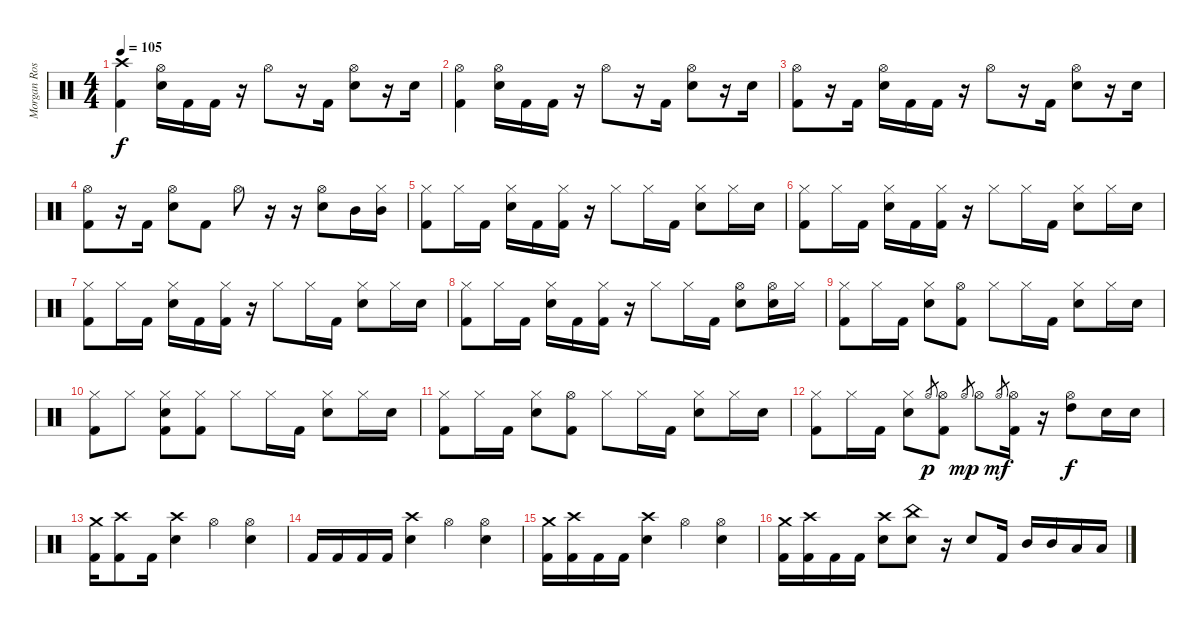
\track ("Morgan Rose - Drums" "Morgan Ros") {instrument percussion}
\staff {score}
\articulation defaults
\ts (4 4)
\tempo 105
\clef neutral
\ks c
("Crash high (hit)" "Kick (hit) 2").4{dy f} ("Hi-Hat (open)" "Electric Snare (hit)").16 "Kick (hit) 2".16 "Kick (hit) 2".16 r.16 "Hi-Hat (open)".8 r.16 "Kick (hit) 2".16 ("Hi-Hat (open)" "Electric Snare (hit)").8 r.16 "Electric Snare (hit)".16 |
("Hi-Hat (open)" "Kick (hit) 2").4 ("Hi-Hat (open)" "Electric Snare (hit)").16 "Kick (hit) 2".16 "Kick (hit) 2".16 r.16 "Hi-Hat (open)".8 r.16 "Kick (hit) 2".16 ("Hi-Hat (open)" "Electric Snare (hit)").8 r.16 "Electric Snare (hit)".16 |
("Hi-Hat (open)" "Kick (hit) 2").8 r.16 "Kick (hit) 2".16 ("Hi-Hat (open)" "Electric Snare (hit)").16 "Kick (hit) 2".16 "Kick (hit) 2".16 r.16 "Hi-Hat (open)".8 r.16 "Kick (hit) 2".16 ("Hi-Hat (open)" "Electric Snare (hit)").8 r.16 "Electric Snare (hit)".16 |
("Hi-Hat (open)" "Kick (hit) 2").8 r.16 "Kick (hit) 2".16 ("Hi-Hat (open)" "Electric Snare (hit)").8 "Kick (hit) 2".8 "Hi-Hat (open)".8 r.16 r.16 ("Hi-Hat (open)" "Electric Snare (hit)").8 "Mid Tom (hit)".16 ("Hi-Hat (closed)" "Mid Tom (hit)").16 |
("Hi-Hat (closed)" "Kick (hit) 2").8 "Hi-Hat (closed)".16 "Kick (hit) 2".16 ("Hi-Hat (closed)" "Electric Snare (hit)").16 "Kick (hit) 2".16 ("Hi-Hat (closed)" "Kick (hit) 2").16 r.16 "Hi-Hat (closed)".8 "Hi-Hat (closed)".16 "Kick (hit) 2".16 ("Hi-Hat (closed)" "Electric Snare (hit)").8 "Hi-Hat (closed)".16 "Electric Snare (hit)".16 |
("Hi-Hat (closed)" "Kick (hit) 2").8 "Hi-Hat (closed)".16 "Kick (hit) 2".16 ("Hi-Hat (closed)" "Electric Snare (hit)").16 "Kick (hit) 2".16 ("Hi-Hat (closed)" "Kick (hit) 2").16 r.16 "Hi-Hat (closed)".8 "Hi-Hat (closed)".16 "Kick (hit) 2".16 ("Hi-Hat (closed)" "Electric Snare (hit)").8 "Hi-Hat (closed)".16 "Electric Snare (hit)".16 |
("Hi-Hat (closed)" "Kick (hit) 2").8 "Hi-Hat (closed)".16 "Kick (hit) 2".16 ("Hi-Hat (closed)" "Electric Snare (hit)").16 "Kick (hit) 2".16 ("Hi-Hat (closed)" "Kick (hit) 2").16 r.16 "Hi-Hat (closed)".8 "Hi-Hat (closed)".16 "Kick (hit) 2".16 ("Hi-Hat (closed)" "Electric Snare (hit)").8 "Hi-Hat (closed)".16 "Electric Snare (hit)".16 |
("Hi-Hat (closed)" "Kick (hit) 2").8 "Hi-Hat (closed)".16 "Kick (hit) 2".16 ("Hi-Hat (closed)" "Electric Snare (hit)").16 "Kick (hit) 2".16 ("Hi-Hat (closed)" "Kick (hit) 2").16 r.16 "Hi-Hat (closed)".8 "Hi-Hat (closed)".16 "Kick (hit) 2".16 ("Hi-Hat (open)" "Electric Snare (hit)").8 ("Hi-Hat (open)" "Electric Snare (hit)").16 "Hi-Hat (closed)".16 |
("Hi-Hat (closed)" "Kick (hit) 2").8 "Hi-Hat (closed)".16 "Kick (hit) 2".16 ("Hi-Hat (closed)" "Electric Snare (hit)").8 ("Hi-Hat (open)" "Kick (hit) 2").8 "Hi-Hat (closed)".8 "Hi-Hat (closed)".16 "Kick (hit) 2".16 ("Hi-Hat (closed)" "Electric Snare (hit)").8 "Hi-Hat (closed)".16 "Electric Snare (hit)".16 |
("Hi-Hat (closed)" "Kick (hit) 2").8 "Hi-Hat (closed)".8 ("Hi-Hat (closed)" "Electric Snare (hit)" "Kick (hit) 2").8 ("Hi-Hat (closed)" "Kick (hit) 2").8 "Hi-Hat (closed)".8 "Hi-Hat (closed)".16 "Kick (hit) 2".16 ("Hi-Hat (closed)" "Electric Snare (hit)").8 "Hi-Hat (closed)".16 "Electric Snare (hit)".16 |
("Hi-Hat (closed)" "Kick (hit) 2").8 "Hi-Hat (closed)".16 "Kick (hit) 2".16 ("Hi-Hat (closed)" "Electric Snare (hit)").8 ("Hi-Hat (open)" "Kick (hit) 2").8 "Hi-Hat (closed)".8 "Hi-Hat (closed)".16 "Kick (hit) 2".16 ("Hi-Hat (closed)" "Electric Snare (hit)").8 "Hi-Hat (closed)".16 "Electric Snare (hit)".16 |
("Hi-Hat (closed)" "Kick (hit) 2").8 "Hi-Hat (closed)".16 "Kick (hit) 2".16 ("Hi-Hat (closed)" "Electric Snare (hit)").8 "Hi-Hat (open)"{sl}.8{gr dy p} ("Hi-Hat (open)" "Kick (hit) 2").8 "Hi-Hat (open)"{sl}.8{gr dy mp} "Hi-Hat (open)".8 "Hi-Hat (open)"{sl}.8{gr dy mf} ("Hi-Hat (open)" "Kick (hit) 2").16 r.16 ("Hi-Hat (open)" "High Tom (hit)").8{dy f} "Electric Snare (hit)".16 "Electric Snare (hit)".16 |
("Crash medium (hit)" "Kick (hit) 2").16 ("Crash high (hit)" "Kick (hit) 2").8 "Kick (hit) 2".16 ("Crash high (hit)" "Electric Snare (hit)").4 "Hi-Hat (open)".4 ("Hi-Hat (open)" "Electric Snare (hit)").4 |
"Kick (hit) 2".16 "Kick (hit) 2".16 "Kick (hit) 2".16 "Kick (hit) 2".16 ("Crash high (hit)" "Electric Snare (hit)").4 "Hi-Hat (open)".4 ("Hi-Hat (open)" "Electric Snare (hit)").4 |
("Crash medium (hit)" "Kick (hit) 2").16 ("Crash high (hit)" "Kick (hit) 2").16 "Kick (hit) 2".16 "Kick (hit) 2".16 ("Crash high (hit)" "Electric Snare (hit)").4 "Hi-Hat (open)".4 ("Hi-Hat (open)" "Electric Snare (hit)").4 |
("Crash medium (hit)" "Kick (hit) 2").16 ("Crash high (hit)" "Kick (hit) 2").16 "Kick (hit) 2".16 "Kick (hit) 2".16 ("Crash high (hit)" "Electric Snare (hit)").8 ("China (hit)" "Electric Snare (hit)").8 r.16 "Electric Snare (hit)".8 "Kick (hit) 2".16 "Mid Tom (hit)".16 "Mid Tom (hit)".16 "Low Tom (hit)".16 "Low Tom (hit)".16
